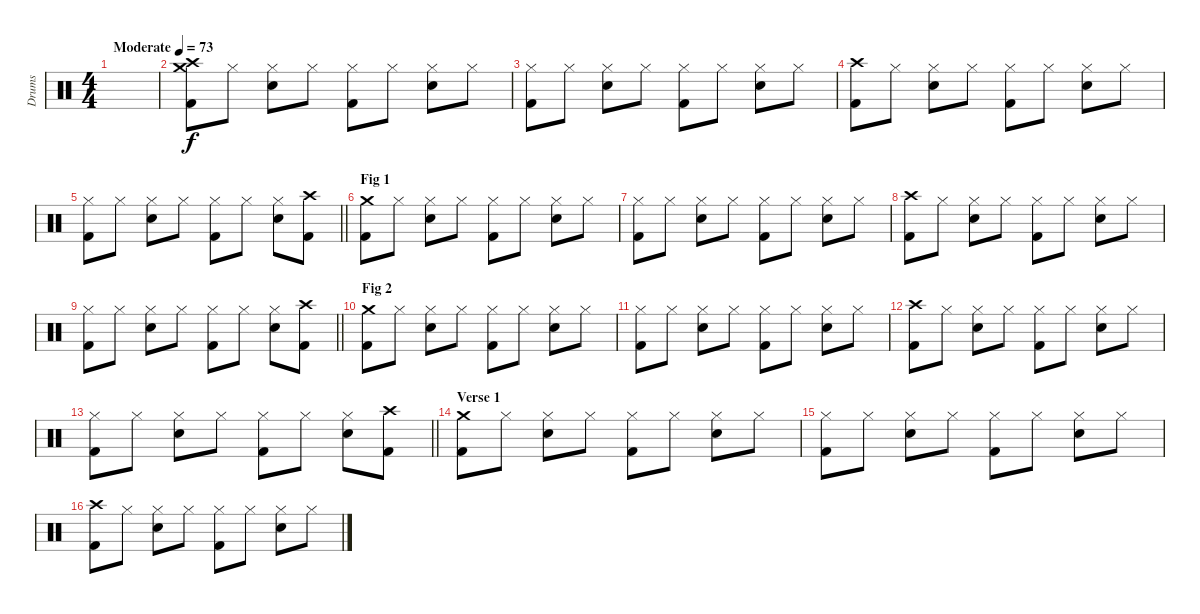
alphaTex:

\track ("Drums" "Drums") {instrument percussion}
\staff {score}
\articulation defaults
\ts (4 4)
\tempo (73 "Moderate")
\clef neutral
\ks c
|
("Crash medium (hit)" "Crash high (hit)" "Kick (hit) 2").8 "Hi-Hat (closed)".8 ("Hi-Hat (closed)" "Electric Snare (hit)").8 "Hi-Hat (closed)".8 ("Hi-Hat (closed)" "Kick (hit) 2").8 "Hi-Hat (closed)".8 ("Hi-Hat (closed)" "Electric Snare (hit)").8 "Hi-Hat (closed)".8 |
("Hi-Hat (closed)" "Kick (hit) 2").8 "Hi-Hat (closed)".8 ("Hi-Hat (closed)" "Electric Snare (hit)").8 "Hi-Hat (closed)".8 ("Hi-Hat (closed)" "Kick (hit) 2").8 "Hi-Hat (closed)".8 ("Hi-Hat (closed)" "Electric Snare (hit)").8 "Hi-Hat (closed)".8 |
("Crash high (hit)" "Kick (hit) 2").8 "Hi-Hat (closed)".8 ("Hi-Hat (closed)" "Electric Snare (hit)").8 "Hi-Hat (closed)".8 ("Hi-Hat (closed)" "Kick (hit) 2").8 "Hi-Hat (closed)".8 ("Hi-Hat (closed)" "Electric Snare (hit)").8 "Hi-Hat (closed)".8 |
\barLineRight lightlight
("Hi-Hat (closed)" "Kick (hit) 2").8 "Hi-Hat (closed)".8 ("Hi-Hat (closed)" "Electric Snare (hit)").8 "Hi-Hat (closed)".8 ("Hi-Hat (closed)" "Kick (hit) 2").8 "Hi-Hat (closed)".8 ("Hi-Hat (closed)" "Electric Snare (hit)").8 ("Crash high (hit)" "Kick (hit) 2").8 |
\section ("" "Fig 1")
("Crash medium (hit)" "Kick (hit) 2").8 "Hi-Hat (closed)".8 ("Hi-Hat (closed)" "Electric Snare (hit)").8 "Hi-Hat (closed)".8 ("Hi-Hat (closed)" "Kick (hit) 2").8 "Hi-Hat (closed)".8 ("Hi-Hat (closed)" "Electric Snare (hit)").8 "Hi-Hat (closed)".8 |
("Hi-Hat (closed)" "Kick (hit) 2").8 "Hi-Hat (closed)".8 ("Hi-Hat (closed)" "Electric Snare (hit)").8 "Hi-Hat (closed)".8 ("Hi-Hat (closed)" "Kick (hit) 2").8 "Hi-Hat (closed)".8 ("Hi-Hat (closed)" "Electric Snare (hit)").8 "Hi-Hat (closed)".8 |
("Crash high (hit)" "Kick (hit) 2").8 "Hi-Hat (closed)".8 ("Hi-Hat (closed)" "Electric Snare (hit)").8 "Hi-Hat (closed)".8 ("Hi-Hat (closed)" "Kick (hit) 2").8 "Hi-Hat (closed)".8 ("Hi-Hat (closed)" "Electric Snare (hit)").8 "Hi-Hat (closed)".8 |
\barLineRight lightlight
("Hi-Hat (closed)" "Kick (hit) 2").8 "Hi-Hat (closed)".8 ("Hi-Hat (closed)" "Electric Snare (hit)").8 "Hi-Hat (closed)".8 ("Hi-Hat (closed)" "Kick (hit) 2").8 "Hi-Hat (closed)".8 ("Hi-Hat (closed)" "Electric Snare (hit)").8 ("Crash high (hit)" "Kick (hit) 2").8 |
\section ("" "Fig 2")
("Crash medium (hit)" "Kick (hit) 2").8 "Hi-Hat (closed)".8 ("Hi-Hat (closed)" "Electric Snare (hit)").8 "Hi-Hat (closed)".8 ("Hi-Hat (closed)" "Kick (hit) 2").8 "Hi-Hat (closed)".8 ("Hi-Hat (closed)" "Electric Snare (hit)").8 "Hi-Hat (closed)".8 |
("Hi-Hat (closed)" "Kick (hit) 2").8 "Hi-Hat (closed)".8 ("Hi-Hat (closed)" "Electric Snare (hit)").8 "Hi-Hat (closed)".8 ("Hi-Hat (closed)" "Kick (hit) 2").8 "Hi-Hat (closed)".8 ("Hi-Hat (closed)" "Electric Snare (hit)").8 "Hi-Hat (closed)".8 |
("Crash high (hit)" "Kick (hit) 2").8 "Hi-Hat (closed)".8 ("Hi-Hat (closed)" "Electric Snare (hit)").8 "Hi-Hat (closed)".8 ("Hi-Hat (closed)" "Kick (hit) 2").8 "Hi-Hat (closed)".8 ("Hi-Hat (closed)" "Electric Snare (hit)").8 "Hi-Hat (closed)".8 |
\barLineRight lightlight
("Hi-Hat (closed)" "Kick (hit) 2").8 "Hi-Hat (closed)".8 ("Hi-Hat (closed)" "Electric Snare (hit)").8 "Hi-Hat (closed)".8 ("Hi-Hat (closed)" "Kick (hit) 2").8 "Hi-Hat (closed)".8 ("Hi-Hat (closed)" "Electric Snare (hit)").8 ("Crash high (hit)" "Kick (hit) 2").8 |
\section ("" "Verse 1")
("Crash medium (hit)" "Kick (hit) 2").8 "Hi-Hat (closed)".8 ("Hi-Hat (closed)" "Electric Snare (hit)").8 "Hi-Hat (closed)".8 ("Hi-Hat (closed)" "Kick (hit) 2").8 "Hi-Hat (closed)".8 ("Hi-Hat (closed)" "Electric Snare (hit)").8 "Hi-Hat (closed)".8 |
("Hi-Hat (closed)" "Kick (hit) 2").8 "Hi-Hat (closed)".8 ("Hi-Hat (closed)" "Electric Snare (hit)").8 "Hi-Hat (closed)".8 ("Hi-Hat (closed)" "Kick (hit) 2").8 "Hi-Hat (closed)".8 ("Hi-Hat (closed)" "Electric Snare (hit)").8 "Hi-Hat (closed)".8 |
("Crash high (hit)" "Kick (hit) 2").8 "Hi-Hat (closed)".8 ("Hi-Hat (closed)" "Electric Snare (hit)").8 "Hi-Hat (closed)".8 ("Hi-Hat (closed)" "Kick (hit) 2").8 "Hi-Hat (closed)".8 ("Hi-Hat (closed)" "Electric Snare (hit)").8 "Hi-Hat (closed)".8
